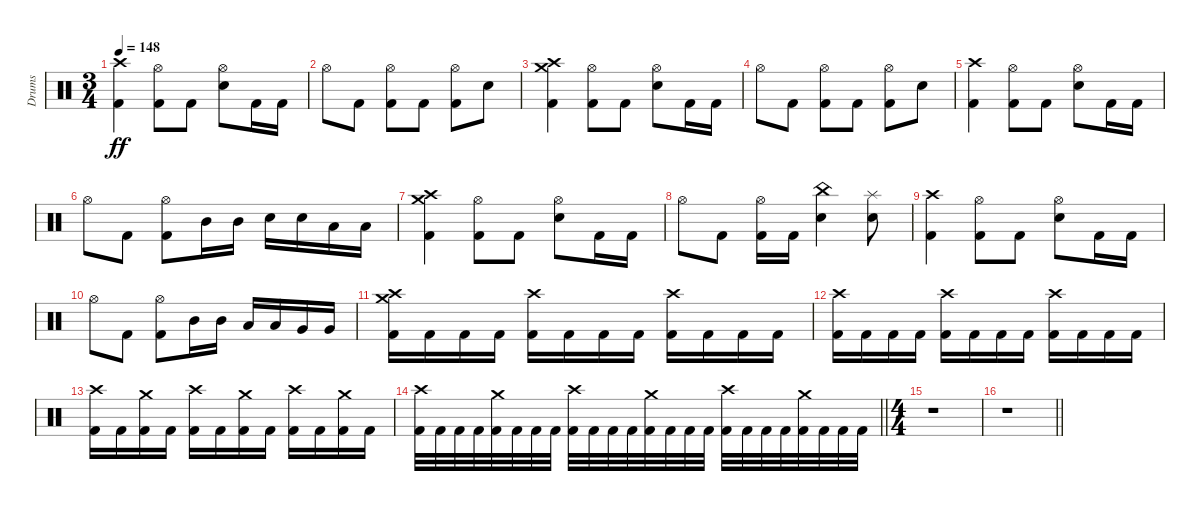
\track ("Drums" "Drums") {instrument percussion}
\staff {score}
\articulation defaults
\ts (3 4)
\tempo 148
\clef neutral
\ks c
("Crash high (hit)" "Kick (hit) 2").4{dy ff} ("Hi-Hat (open)" "Kick (hit) 2").8 "Kick (hit) 2".8 ("Hi-Hat (open)" "Electric Snare (hit)").8 "Kick (hit) 2".16 "Kick (hit) 2".16 |
"Hi-Hat (open)".8 "Kick (hit) 2".8 ("Hi-Hat (open)" "Kick (hit) 2").8 "Kick (hit) 2".8 ("Hi-Hat (open)" "Kick (hit) 2").8 "Electric Snare (hit)".8 |
("Crash medium (hit)" "Crash high (hit)" "Kick (hit) 2").4 ("Hi-Hat (open)" "Kick (hit) 2").8 "Kick (hit) 2".8 ("Hi-Hat (open)" "Electric Snare (hit)").8 "Kick (hit) 2".16 "Kick (hit) 2".16 |
"Hi-Hat (open)".8 "Kick (hit) 2".8 ("Hi-Hat (open)" "Kick (hit) 2").8 "Kick (hit) 2".8 ("Hi-Hat (open)" "Kick (hit) 2").8 "Electric Snare (hit)".8 |
("Crash high (hit)" "Kick (hit) 2").4 ("Hi-Hat (open)" "Kick (hit) 2").8 "Kick (hit) 2".8 ("Hi-Hat (open)" "Electric Snare (hit)").8 "Kick (hit) 2".16 "Kick (hit) 2".16 |
"Hi-Hat (open)".8 "Kick (hit) 2".8 ("Hi-Hat (open)" "Kick (hit) 2").8 "Mid Tom (hit)".16 "Mid Tom (hit)".16 "Electric Snare (hit)".16 "Electric Snare (hit)".16 "Low Tom (hit)".16 "Low Tom (hit)".16 |
("Crash medium (hit)" "Crash high (hit)" "Kick (hit) 2").4 ("Hi-Hat (open)" "Kick (hit) 2").8 "Kick (hit) 2".8 ("Hi-Hat (open)" "Electric Snare (hit)").8 "Kick (hit) 2".16 "Kick (hit) 2".16 |
"Hi-Hat (open)".8 "Kick (hit) 2".8 ("Hi-Hat (open)" "Kick (hit) 2").16 "Kick (hit) 2".16 ("China (hit)" "Electric Snare (hit)").4 ("Splash (hit)" "Electric Snare (hit)").8 |
("Crash high (hit)" "Kick (hit) 2").4 ("Hi-Hat (open)" "Kick (hit) 2").8 "Kick (hit) 2".8 ("Hi-Hat (open)" "Electric Snare (hit)").8 "Kick (hit) 2".16 "Kick (hit) 2".16 |
"Hi-Hat (open)".8 "Kick (hit) 2".8 ("Hi-Hat (open)" "Kick (hit) 2").8 "Mid Tom (hit)".16 "Mid Tom (hit)".16 "Low Tom (hit)".16 "Low Tom (hit)".16 "Very Low Tom (hit)".16 "Very Low Tom (hit)".16 |
("Crash medium (hit)" "Crash high (hit)" "Kick (hit) 2").16 "Kick (hit) 2".16 "Kick (hit) 2".16 "Kick (hit) 2".16 ("Crash high (hit)" "Kick (hit) 2").16 "Kick (hit) 2".16 "Kick (hit) 2".16 "Kick (hit) 2".16 ("Crash high (hit)" "Kick (hit) 2").16 "Kick (hit) 2".16 "Kick (hit) 2".16 "Kick (hit) 2".16 |
("Crash high (hit)" "Kick (hit) 2").16 "Kick (hit) 2".16 "Kick (hit) 2".16 "Kick (hit) 2".16 ("Crash high (hit)" "Kick (hit) 2").16 "Kick (hit) 2".16 "Kick (hit) 2".16 "Kick (hit) 2".16 ("Crash high (hit)" "Kick (hit) 2").16 "Kick (hit) 2".16 "Kick (hit) 2".16 "Kick (hit) 2".16 |
("Crash high (hit)" "Kick (hit) 2").16 "Kick (hit) 2".16 ("Crash medium (hit)" "Kick (hit) 2").16 "Kick (hit) 2".16 ("Crash high (hit)" "Kick (hit) 2").16 "Kick (hit) 2".16 ("Crash medium (hit)" "Kick (hit) 2").16 "Kick (hit) 2".16 ("Crash high (hit)" "Kick (hit) 2").16 "Kick (hit) 2".16 ("Crash medium (hit)" "Kick (hit) 2").16 "Kick (hit) 2".16 |
\barLineRight lightlight
("Crash high (hit)" "Kick (hit) 2").32 "Kick (hit) 2".32 "Kick (hit) 2".32 "Kick (hit) 2".32 ("Crash medium (hit)" "Kick (hit) 2").32 "Kick (hit) 2".32 "Kick (hit) 2".32 "Kick (hit) 2".32 ("Crash high (hit)" "Kick (hit) 2").32 "Kick (hit) 2".32 "Kick (hit) 2".32 "Kick (hit) 2".32 ("Crash medium (hit)" "Kick (hit) 2").32 "Kick (hit) 2".32 "Kick (hit) 2".32 "Kick (hit) 2".32 ("Crash high (hit)" "Kick (hit) 2").32 "Kick (hit) 2".32 "Kick (hit) 2".32 "Kick (hit) 2".32 ("Crash medium (hit)" "Kick (hit) 2").32 "Kick (hit) 2".32 "Kick (hit) 2".32 "Kick (hit) 2".32 |
\ts (4 4)
\section ("" "")
r.1 |
\barLineRight lightlight
r.1
